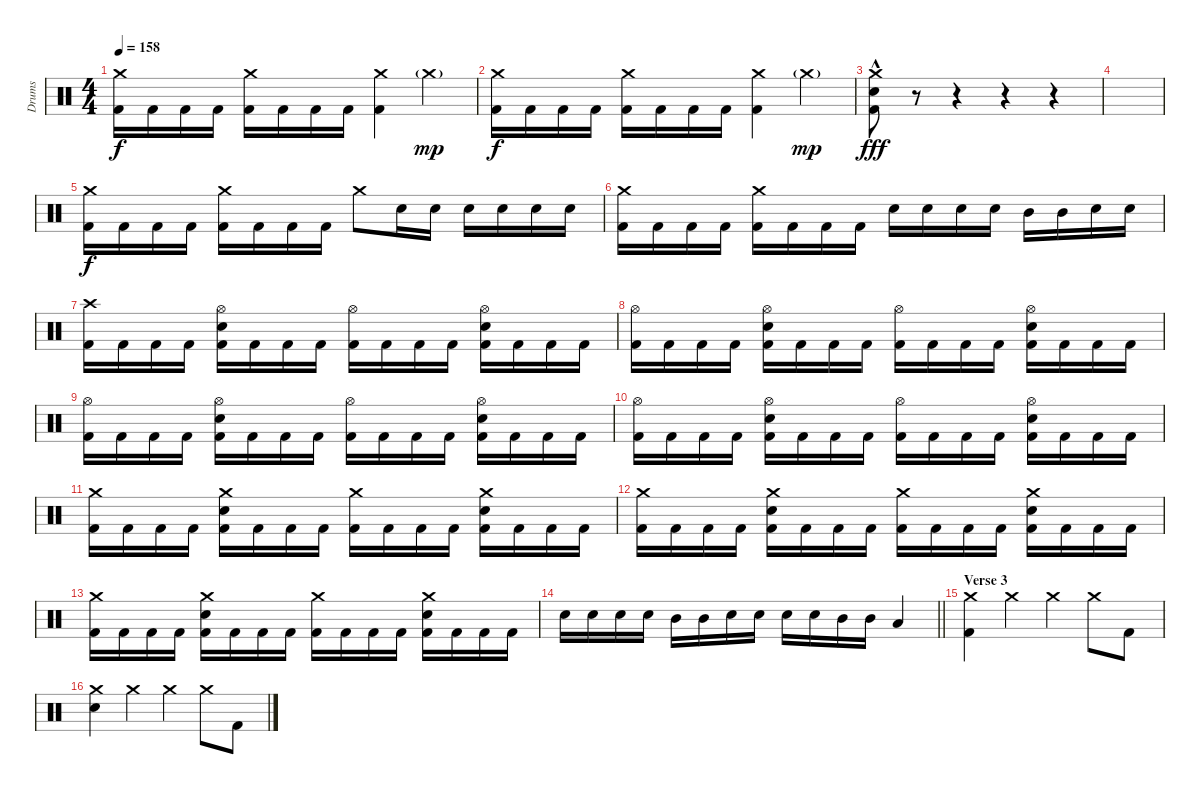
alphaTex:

\track ("Drums" "Drums") {instrument percussion}
\staff {score}
\articulation defaults
\ts (4 4)
\tempo 158
\clef neutral
\ks c
("Crash medium (hit)" "Kick (hit) 2").16{dy f} "Kick (hit) 2".16 "Kick (hit) 2".16 "Kick (hit) 2".16 ("Crash medium (hit)" "Kick (hit) 2").16 "Kick (hit) 2".16 "Kick (hit) 2".16 "Kick (hit) 2".16 ("Crash medium (hit)" "Kick (hit) 2").4 "Crash medium (hit)"{g}.4{dy mp} |
("Crash medium (hit)" "Kick (hit) 2").16{dy f} "Kick (hit) 2".16 "Kick (hit) 2".16 "Kick (hit) 2".16 ("Crash medium (hit)" "Kick (hit) 2").16 "Kick (hit) 2".16 "Kick (hit) 2".16 "Kick (hit) 2".16 ("Crash medium (hit)" "Kick (hit) 2").4 "Crash medium (hit)"{g}.4{dy mp} |
("Crash medium (hit)"{hac} "Electric Snare (hit)" "Kick (hit) 2").8{dy fff} r.8 r.4 r.4 r.4 |
|
("Crash medium (hit)" "Kick (hit) 2").16{dy f} "Kick (hit) 2".16 "Kick (hit) 2".16 "Kick (hit) 2".16 ("Crash medium (hit)" "Kick (hit) 2").16 "Kick (hit) 2".16 "Kick (hit) 2".16 "Kick (hit) 2".16 "Crash medium (hit)".8 "Electric Snare (hit)".16 "Electric Snare (hit)".16 "Electric Snare (hit)".16 "Electric Snare (hit)".16 "Electric Snare (hit)".16 "Electric Snare (hit)".16 |
("Crash medium (hit)" "Kick (hit) 2").16 "Kick (hit) 2".16 "Kick (hit) 2".16 "Kick (hit) 2".16 ("Crash medium (hit)" "Kick (hit) 2").16 "Kick (hit) 2".16 "Kick (hit) 2".16 "Kick (hit) 2".16 "Electric Snare (hit)".16 "Electric Snare (hit)".16 "Electric Snare (hit)".16 "Electric Snare (hit)".16 "Mid Tom (hit)".16 "Mid Tom (hit)".16 "Electric Snare (hit)".16 "Electric Snare (hit)".16 |
("Crash high (hit)" "Kick (hit) 2").16 "Kick (hit) 2".16 "Kick (hit) 2".16 "Kick (hit) 2".16 ("Hi-Hat (open)" "Electric Snare (hit)" "Kick (hit) 2").16 "Kick (hit) 2".16 "Kick (hit) 2".16 "Kick (hit) 2".16 ("Hi-Hat (open)" "Kick (hit) 2").16 "Kick (hit) 2".16 "Kick (hit) 2".16 "Kick (hit) 2".16 ("Hi-Hat (open)" "Electric Snare (hit)" "Kick (hit) 2").16 "Kick (hit) 2".16 "Kick (hit) 2".16 "Kick (hit) 2".16 |
("Hi-Hat (open)" "Kick (hit) 2").16 "Kick (hit) 2".16 "Kick (hit) 2".16 "Kick (hit) 2".16 ("Hi-Hat (open)" "Electric Snare (hit)" "Kick (hit) 2").16 "Kick (hit) 2".16 "Kick (hit) 2".16 "Kick (hit) 2".16 ("Hi-Hat (open)" "Kick (hit) 2").16 "Kick (hit) 2".16 "Kick (hit) 2".16 "Kick (hit) 2".16 ("Hi-Hat (open)" "Electric Snare (hit)" "Kick (hit) 2").16 "Kick (hit) 2".16 "Kick (hit) 2".16 "Kick (hit) 2".16 |
("Hi-Hat (open)" "Kick (hit) 2").16 "Kick (hit) 2".16 "Kick (hit) 2".16 "Kick (hit) 2".16 ("Hi-Hat (open)" "Electric Snare (hit)" "Kick (hit) 2").16 "Kick (hit) 2".16 "Kick (hit) 2".16 "Kick (hit) 2".16 ("Hi-Hat (open)" "Kick (hit) 2").16 "Kick (hit) 2".16 "Kick (hit) 2".16 "Kick (hit) 2".16 ("Hi-Hat (open)" "Electric Snare (hit)" "Kick (hit) 2").16 "Kick (hit) 2".16 "Kick (hit) 2".16 "Kick (hit) 2".16 |
("Hi-Hat (open)" "Kick (hit) 2").16 "Kick (hit) 2".16 "Kick (hit) 2".16 "Kick (hit) 2".16 ("Hi-Hat (open)" "Electric Snare (hit)" "Kick (hit) 2").16 "Kick (hit) 2".16 "Kick (hit) 2".16 "Kick (hit) 2".16 ("Hi-Hat (open)" "Kick (hit) 2").16 "Kick (hit) 2".16 "Kick (hit) 2".16 "Kick (hit) 2".16 ("Hi-Hat (open)" "Electric Snare (hit)" "Kick (hit) 2").16 "Kick (hit) 2".16 "Kick (hit) 2".16 "Kick (hit) 2".16 |
("Crash medium (hit)" "Kick (hit) 2").16 "Kick (hit) 2".16 "Kick (hit) 2".16 "Kick (hit) 2".16 ("Crash medium (hit)" "Electric Snare (hit)" "Kick (hit) 2").16 "Kick (hit) 2".16 "Kick (hit) 2".16 "Kick (hit) 2".16 ("Crash medium (hit)" "Kick (hit) 2").16 "Kick (hit) 2".16 "Kick (hit) 2".16 "Kick (hit) 2".16 ("Crash medium (hit)" "Electric Snare (hit)" "Kick (hit) 2").16 "Kick (hit) 2".16 "Kick (hit) 2".16 "Kick (hit) 2".16 |
("Crash medium (hit)" "Kick (hit) 2").16 "Kick (hit) 2".16 "Kick (hit) 2".16 "Kick (hit) 2".16 ("Crash medium (hit)" "Electric Snare (hit)" "Kick (hit) 2").16 "Kick (hit) 2".16 "Kick (hit) 2".16 "Kick (hit) 2".16 ("Crash medium (hit)" "Kick (hit) 2").16 "Kick (hit) 2".16 "Kick (hit) 2".16 "Kick (hit) 2".16 ("Crash medium (hit)" "Electric Snare (hit)" "Kick (hit) 2").16 "Kick (hit) 2".16 "Kick (hit) 2".16 "Kick (hit) 2".16 |
("Crash medium (hit)" "Kick (hit) 2").16 "Kick (hit) 2".16 "Kick (hit) 2".16 "Kick (hit) 2".16 ("Crash medium (hit)" "Electric Snare (hit)" "Kick (hit) 2").16 "Kick (hit) 2".16 "Kick (hit) 2".16 "Kick (hit) 2".16 ("Crash medium (hit)" "Kick (hit) 2").16 "Kick (hit) 2".16 "Kick (hit) 2".16 "Kick (hit) 2".16 ("Crash medium (hit)" "Electric Snare (hit)" "Kick (hit) 2").16 "Kick (hit) 2".16 "Kick (hit) 2".16 "Kick (hit) 2".16 |
\barLineRight lightlight "Electric Snare (hit)".16 "Electric Snare (hit)".16 "Electric Snare (hit)".16 "Electric Snare (hit)".16 "Mid Tom (hit)".16 "Mid Tom (hit)".16 "Electric Snare (hit)".16 "Electric Snare (hit)".16 "Electric Snare (hit)".16 "Electric Snare (hit)".16 "Mid Tom (hit)".16 "Mid Tom (hit)".16 "Low Tom (hit)".4
|
\section ("" "Verse 3")
("Crash medium (hit)" "Kick (hit) 2").4 "Crash medium (hit)".4 "Crash medium (hit)".4 "Crash medium (hit)".8 "Kick (hit) 2".8 |
("Crash medium (hit)" "Electric Snare (hit)").4 "Crash medium (hit)".4 "Crash medium (hit)".4 "Crash medium (hit)".8 "Kick (hit) 2".8
